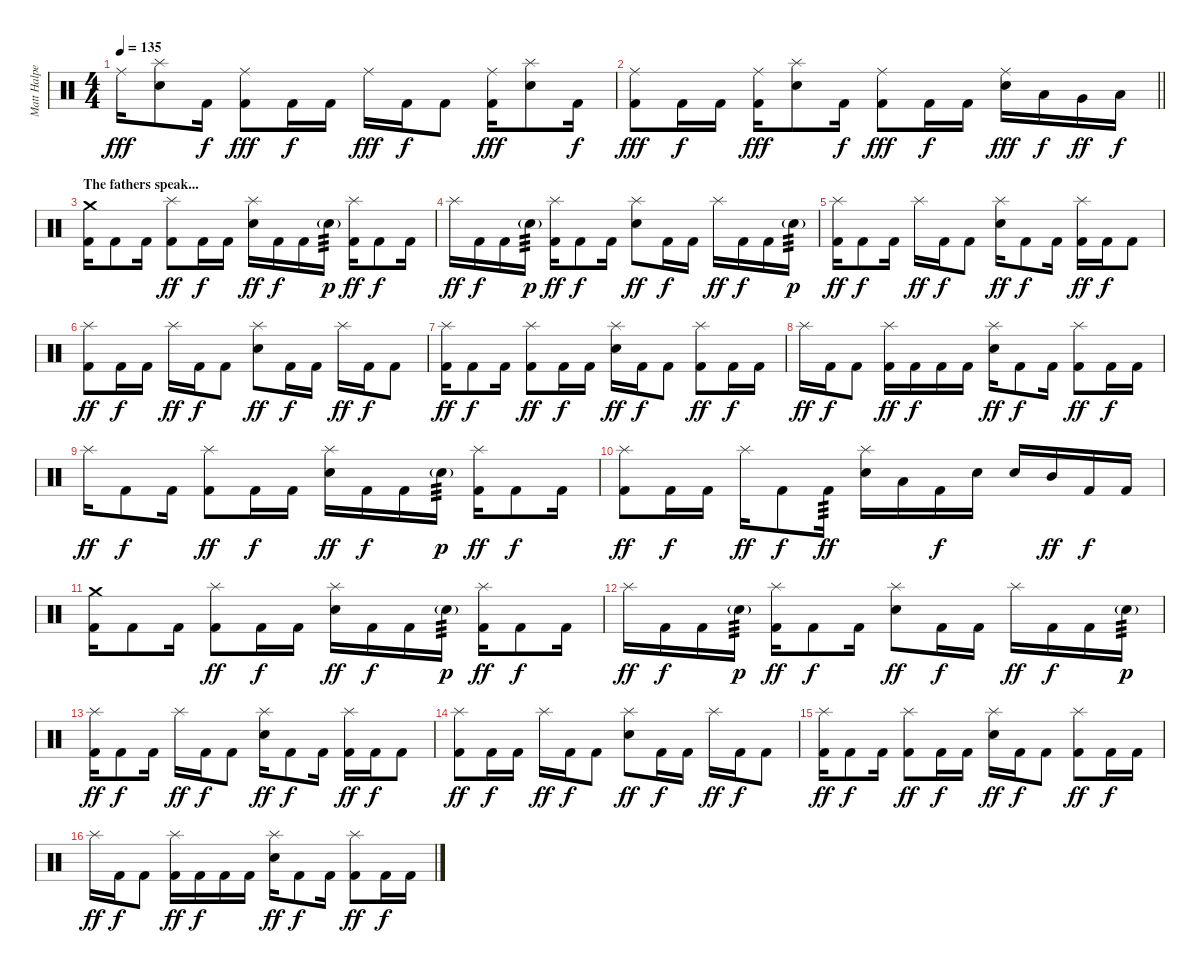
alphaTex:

\track ("Matt Halpern - Drums" "Matt Halpe") {instrument percussion}
\staff {score}
\articulation defaults
\ts (4 4)
\tempo 135
\clef neutral
\ks c "Ride (middle)".16{dy fff}
("Splash (hit)" "Electric Snare (hit)").8 "Kick (hit) 2".16{dy f} ("Ride (middle)" "Kick (hit) 2").8{dy fff} "Kick (hit) 2".16{dy f} "Kick (hit) 2".16 "Ride (middle)".16{dy fff} "Kick (hit) 2".16{dy f} "Kick (hit) 2".8 ("Ride (middle)" "Kick (hit) 2").16{dy fff} ("Splash (hit)" "Electric Snare (hit)").8 "Kick (hit) 2".16{dy f} |
\barLineRight lightlight
("Ride (middle)" "Kick (hit) 2").8{dy fff} "Kick (hit) 2".16{dy f} "Kick (hit) 2".16 ("Ride (middle)" "Kick (hit) 2").16{dy fff} ("Splash (hit)" "Electric Snare (hit)").8 "Kick (hit) 2".16{dy f} ("Ride (middle)" "Kick (hit) 2").8{dy fff} "Kick (hit) 2".16{dy f} "Kick (hit) 2".16 ("Ride (middle)" "Electric Snare (hit)").16{dy fff} "Low Tom (hit)".16{dy f} "Very Low Tom (hit)".16{dy ff} "Low Floor Tom (hit)".16{dy f} |
\section ("" "The fathers speak...")
("Crash medium (hit)" "Kick (hit) 2").16 "Kick (hit) 2".8 "Kick (hit) 2".16 ("Splash (hit)" "Kick (hit) 2").8{dy ff} "Kick (hit) 2".16{dy f} "Kick (hit) 2".16 ("Splash (hit)" "Electric Snare (hit)").16{dy ff} "Kick (hit) 2".16{dy f} "Kick (hit) 2".16 "Electric Snare (hit)"{g}.16{tp 3 dy p} ("Splash (hit)" "Kick (hit) 2").16{dy ff} "Kick (hit) 2".8{dy f} "Kick (hit) 2".16 |
"Splash (hit)".16{dy ff} "Kick (hit) 2".16{dy f} "Kick (hit) 2".16 "Electric Snare (hit)"{g}.16{tp 3 dy p} ("Splash (hit)" "Kick (hit) 2").16{dy ff} "Kick (hit) 2".8{dy f} "Kick (hit) 2".16 ("Splash (hit)" "Electric Snare (hit)").8{dy ff} "Kick (hit) 2".16{dy f} "Kick (hit) 2".16 "Splash (hit)".16{dy ff} "Kick (hit) 2".16{dy f} "Kick (hit) 2".16 "Electric Snare (hit)"{g}.16{tp 3 dy p} |
("Splash (hit)" "Kick (hit) 2").16{dy ff} "Kick (hit) 2".8{dy f} "Kick (hit) 2".16 "Splash (hit)".16{dy ff} "Kick (hit) 2".16{dy f} "Kick (hit) 2".8 ("Splash (hit)" "Electric Snare (hit)").16{dy ff} "Kick (hit) 2".8{dy f} "Kick (hit) 2".16 ("Splash (hit)" "Kick (hit) 2").16{dy ff} "Kick (hit) 2".16{dy f} "Kick (hit) 2".8 |
("Splash (hit)" "Kick (hit) 2").8{dy ff} "Kick (hit) 2".16{dy f} "Kick (hit) 2".16 "Splash (hit)".16{dy ff} "Kick (hit) 2".16{dy f} "Kick (hit) 2".8 ("Splash (hit)" "Electric Snare (hit)").8{dy ff} "Kick (hit) 2".16{dy f} "Kick (hit) 2".16 "Splash (hit)".16{dy ff} "Kick (hit) 2".16{dy f} "Kick (hit) 2".8 |
("Splash (hit)" "Kick (hit) 2").16{dy ff} "Kick (hit) 2".8{dy f} "Kick (hit) 2".16 ("Splash (hit)" "Kick (hit) 2").8{dy ff} "Kick (hit) 2".16{dy f} "Kick (hit) 2".16 ("Splash (hit)" "Electric Snare (hit)").16{dy ff} "Kick (hit) 2".16{dy f} "Kick (hit) 2".8 ("Splash (hit)" "Kick (hit) 2").8{dy ff} "Kick (hit) 2".16{dy f} "Kick (hit) 2".16 |
"Splash (hit)".16{dy ff} "Kick (hit) 2".16{dy f} "Kick (hit) 2".8 ("Splash (hit)" "Kick (hit) 2").16{dy ff} "Kick (hit) 2".16{dy f} "Kick (hit) 2".16 "Kick (hit) 2".16 ("Splash (hit)" "Electric Snare (hit)").16{dy ff} "Kick (hit) 2".8{dy f} "Kick (hit) 2".16 ("Splash (hit)" "Kick (hit) 2").8{dy ff} "Kick (hit) 2".16{dy f} "Kick (hit) 2".16 |
"Splash (hit)".16{dy ff} "Kick (hit) 2".8{dy f} "Kick (hit) 2".16 ("Splash (hit)" "Kick (hit) 2").8{dy ff} "Kick (hit) 2".16{dy f} "Kick (hit) 2".16 ("Splash (hit)" "Electric Snare (hit)").16{dy ff} "Kick (hit) 2".16{dy f} "Kick (hit) 2".16 "Electric Snare (hit)"{g}.16{tp 3 dy p} ("Splash (hit)" "Kick (hit) 2").16{dy ff} "Kick (hit) 2".8{dy f} "Kick (hit) 2".16 |
("Splash (hit)" "Kick (hit) 2").8{dy ff} "Kick (hit) 2".16{dy f} "Kick (hit) 2".16 "Splash (hit)".16{dy ff} "Kick (hit) 2".8{dy f} "Kick (hit) 2".16{tp 3 dy ff} ("Splash (hit)" "Electric Snare (hit)").16 "Low Tom (hit)".16 "Kick (hit) 2".16{dy f} "Electric Snare (hit)".16 "Electric Snare (hit)".16 "Mid Tom (hit)".16{dy ff} "Kick (hit) 2".16{dy f} "Kick (hit) 2".16 |
("Crash medium (hit)" "Kick (hit) 2").16 "Kick (hit) 2".8 "Kick (hit) 2".16 ("Splash (hit)" "Kick (hit) 2").8{dy ff} "Kick (hit) 2".16{dy f} "Kick (hit) 2".16 ("Splash (hit)" "Electric Snare (hit)").16{dy ff} "Kick (hit) 2".16{dy f} "Kick (hit) 2".16 "Electric Snare (hit)"{g}.16{tp 3 dy p} ("Splash (hit)" "Kick (hit) 2").16{dy ff} "Kick (hit) 2".8{dy f} "Kick (hit) 2".16 |
"Splash (hit)".16{dy ff} "Kick (hit) 2".16{dy f} "Kick (hit) 2".16 "Electric Snare (hit)"{g}.16{tp 3 dy p} ("Splash (hit)" "Kick (hit) 2").16{dy ff} "Kick (hit) 2".8{dy f} "Kick (hit) 2".16 ("Splash (hit)" "Electric Snare (hit)").8{dy ff} "Kick (hit) 2".16{dy f} "Kick (hit) 2".16 "Splash (hit)".16{dy ff} "Kick (hit) 2".16{dy f} "Kick (hit) 2".16 "Electric Snare (hit)"{g}.16{tp 3 dy p} |
("Splash (hit)" "Kick (hit) 2").16{dy ff} "Kick (hit) 2".8{dy f} "Kick (hit) 2".16 "Splash (hit)".16{dy ff} "Kick (hit) 2".16{dy f} "Kick (hit) 2".8 ("Splash (hit)" "Electric Snare (hit)").16{dy ff} "Kick (hit) 2".8{dy f} "Kick (hit) 2".16 ("Splash (hit)" "Kick (hit) 2").16{dy ff} "Kick (hit) 2".16{dy f} "Kick (hit) 2".8 |
("Splash (hit)" "Kick (hit) 2").8{dy ff} "Kick (hit) 2".16{dy f} "Kick (hit) 2".16 "Splash (hit)".16{dy ff} "Kick (hit) 2".16{dy f} "Kick (hit) 2".8 ("Splash (hit)" "Electric Snare (hit)").8{dy ff} "Kick (hit) 2".16{dy f} "Kick (hit) 2".16 "Splash (hit)".16{dy ff} "Kick (hit) 2".16{dy f} "Kick (hit) 2".8 |
("Splash (hit)" "Kick (hit) 2").16{dy ff} "Kick (hit) 2".8{dy f} "Kick (hit) 2".16 ("Splash (hit)" "Kick (hit) 2").8{dy ff} "Kick (hit) 2".16{dy f} "Kick (hit) 2".16 ("Splash (hit)" "Electric Snare (hit)").16{dy ff} "Kick (hit) 2".16{dy f} "Kick (hit) 2".8 ("Splash (hit)" "Kick (hit) 2").8{dy ff} "Kick (hit) 2".16{dy f} "Kick (hit) 2".16 |
"Splash (hit)".16{dy ff} "Kick (hit) 2".16{dy f} "Kick (hit) 2".8 ("Splash (hit)" "Kick (hit) 2").16{dy ff} "Kick (hit) 2".16{dy f} "Kick (hit) 2".16 "Kick (hit) 2".16 ("Splash (hit)" "Electric Snare (hit)").16{dy ff} "Kick (hit) 2".8{dy f} "Kick (hit) 2".16 ("Splash (hit)" "Kick (hit) 2").8{dy ff} "Kick (hit) 2".16{dy f} "Kick (hit) 2".16
